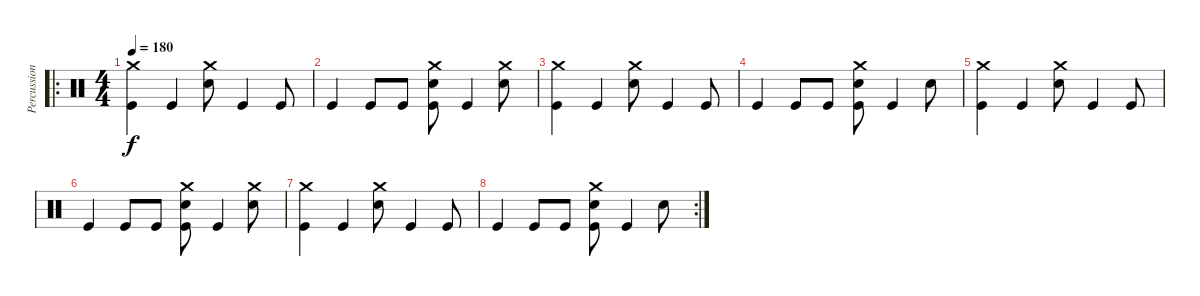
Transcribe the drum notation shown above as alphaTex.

\track ("Percussion" "Percussion") {instrument percussion}
\staff {score}
\articulation defaults
\ro
\ts (4 4)
\tempo 180
\clef neutral
\ks c
("Crash medium (hit)" "Kick (hit)").4{dy f} "Kick (hit)".4 ("Crash medium (hit)" "Electric Snare (hit)").8 "Kick (hit)".4 "Kick (hit)".8 |
"Kick (hit)".4 "Kick (hit)".8 "Kick (hit)".8 ("Crash medium (hit)" "Electric Snare (hit)" "Kick (hit)").8 "Kick (hit)".4 ("Crash medium (hit)" "Electric Snare (hit)").8 |
("Crash medium (hit)" "Kick (hit)").4 "Kick (hit)".4 ("Crash medium (hit)" "Electric Snare (hit)").8 "Kick (hit)".4 "Kick (hit)".8 |
"Kick (hit)".4 "Kick (hit)".8 "Kick (hit)".8 ("Crash medium (hit)" "Electric Snare (hit)" "Kick (hit)").8 "Kick (hit)".4 "Electric Snare (hit)".8 |
("Crash medium (hit)" "Kick (hit)").4 "Kick (hit)".4 ("Crash medium (hit)" "Electric Snare (hit)").8 "Kick (hit)".4 "Kick (hit)".8 |
"Kick (hit)".4 "Kick (hit)".8 "Kick (hit)".8 ("Crash medium (hit)" "Electric Snare (hit)" "Kick (hit)").8 "Kick (hit)".4 ("Crash medium (hit)" "Electric Snare (hit)").8 |
("Crash medium (hit)" "Kick (hit)").4 "Kick (hit)".4 ("Crash medium (hit)" "Electric Snare (hit)").8 "Kick (hit)".4 "Kick (hit)".8 |
\rc 2 "Kick (hit)".4 "Kick (hit)".8 "Kick (hit)".8
("Crash medium (hit)" "Electric Snare (hit)" "Kick (hit)").8 "Kick (hit)".4 "Electric Snare (hit)".8
